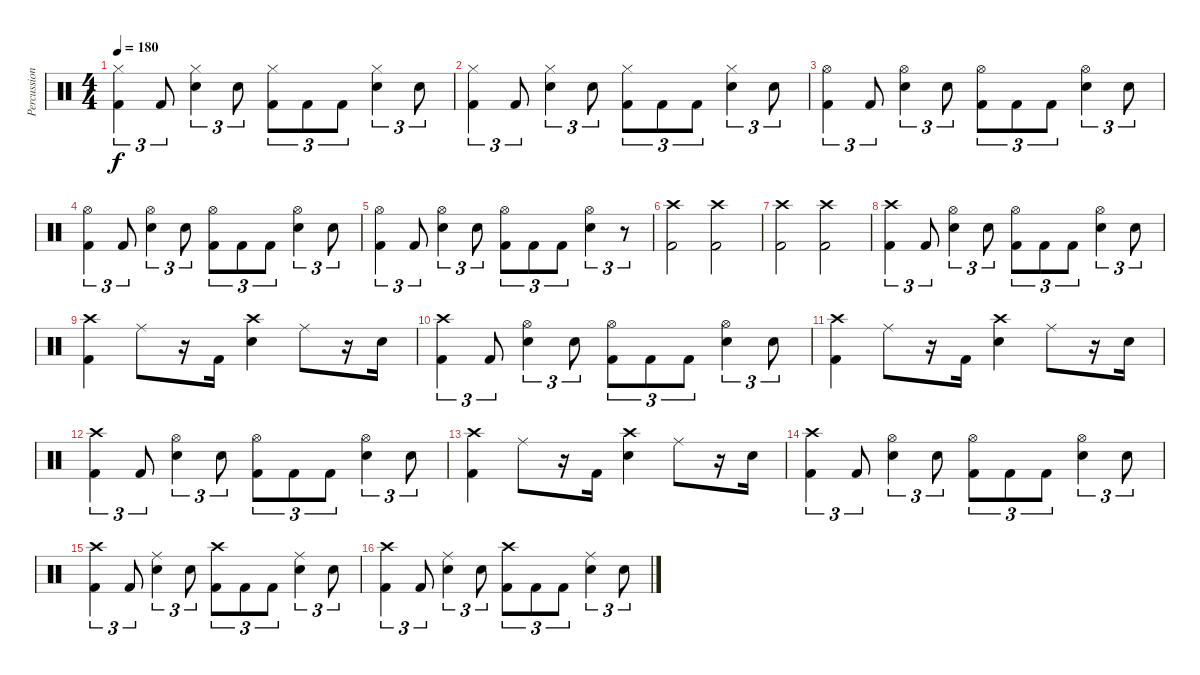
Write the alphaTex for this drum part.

\track ("Percussion" "Percussion") {instrument percussion}
\staff {score}
\articulation defaults
\ts (4 4)
\tempo 180
\clef neutral
\ks c
("Hi-Hat (closed)" "Kick (hit) 2").4{tu (3 2) dy f} "Kick (hit) 2".8{tu (3 2)} ("Hi-Hat (closed)" "Electric Snare (hit)").4{tu (3 2)} "Electric Snare (hit)".8{tu (3 2)} ("Hi-Hat (closed)" "Kick (hit) 2").8{tu (3 2)} "Kick (hit) 2".8{tu (3 2)} "Kick (hit) 2".8{tu (3 2)} ("Hi-Hat (closed)" "Electric Snare (hit)").4{tu (3 2)} "Electric Snare (hit)".8{tu (3 2)} |
("Hi-Hat (closed)" "Kick (hit) 2").4{tu (3 2)} "Kick (hit) 2".8{tu (3 2)} ("Hi-Hat (closed)" "Electric Snare (hit)").4{tu (3 2)} "Electric Snare (hit)".8{tu (3 2)} ("Hi-Hat (closed)" "Kick (hit) 2").8{tu (3 2)} "Kick (hit) 2".8{tu (3 2)} "Kick (hit) 2".8{tu (3 2)} ("Hi-Hat (closed)" "Electric Snare (hit)").4{tu (3 2)} "Electric Snare (hit)".8{tu (3 2)} |
("Hi-Hat (open)" "Kick (hit) 2").4{tu (3 2)} "Kick (hit) 2".8{tu (3 2)} ("Hi-Hat (open)" "Electric Snare (hit)").4{tu (3 2)} "Electric Snare (hit)".8{tu (3 2)} ("Hi-Hat (open)" "Kick (hit) 2").8{tu (3 2)} "Kick (hit) 2".8{tu (3 2)} "Kick (hit) 2".8{tu (3 2)} ("Hi-Hat (open)" "Electric Snare (hit)").4{tu (3 2)} "Electric Snare (hit)".8{tu (3 2)} |
("Hi-Hat (open)" "Kick (hit) 2").4{tu (3 2)} "Kick (hit) 2".8{tu (3 2)} ("Hi-Hat (open)" "Electric Snare (hit)").4{tu (3 2)} "Electric Snare (hit)".8{tu (3 2)} ("Hi-Hat (open)" "Kick (hit) 2").8{tu (3 2)} "Kick (hit) 2".8{tu (3 2)} "Kick (hit) 2".8{tu (3 2)} ("Hi-Hat (open)" "Electric Snare (hit)").4{tu (3 2)} "Electric Snare (hit)".8{tu (3 2)} |
("Hi-Hat (open)" "Kick (hit) 2").4{tu (3 2)} "Kick (hit) 2".8{tu (3 2)} ("Hi-Hat (open)" "Electric Snare (hit)").4{tu (3 2)} "Electric Snare (hit)".8{tu (3 2)} ("Hi-Hat (open)" "Kick (hit) 2").8{tu (3 2)} "Kick (hit) 2".8{tu (3 2)} "Kick (hit) 2".8{tu (3 2)} ("Hi-Hat (open)" "Electric Snare (hit)").4{tu (3 2)} r.8{tu (3 2)} |
("Crash high (hit)" "Kick (hit) 2").2 ("Crash high (hit)" "Kick (hit) 2").2 |
("Crash high (hit)" "Kick (hit) 2").2 ("Crash high (hit)" "Kick (hit) 2").2 |
("Crash high (hit)" "Kick (hit) 2").4{tu (3 2)} "Kick (hit) 2".8{tu (3 2)} ("Hi-Hat (open)" "Electric Snare (hit)").4{tu (3 2)} "Electric Snare (hit)".8{tu (3 2)} ("Hi-Hat (open)" "Kick (hit) 2").8{tu (3 2)} "Kick (hit) 2".8{tu (3 2)} "Kick (hit) 2".8{tu (3 2)} ("Hi-Hat (open)" "Electric Snare (hit)").4{tu (3 2)} "Electric Snare (hit)".8{tu (3 2)} |
("Crash high (hit)" "Kick (hit) 2").4 "Ride (middle)".8 r.16 "Kick (hit) 2".16 ("Crash high (hit)" "Electric Snare (hit)").4 "Ride (middle)".8 r.16 "Electric Snare (hit)".16 |
("Crash high (hit)" "Kick (hit) 2").4{tu (3 2)} "Kick (hit) 2".8{tu (3 2)} ("Hi-Hat (open)" "Electric Snare (hit)").4{tu (3 2)} "Electric Snare (hit)".8{tu (3 2)} ("Hi-Hat (open)" "Kick (hit) 2").8{tu (3 2)} "Kick (hit) 2".8{tu (3 2)} "Kick (hit) 2".8{tu (3 2)} ("Hi-Hat (open)" "Electric Snare (hit)").4{tu (3 2)} "Electric Snare (hit)".8{tu (3 2)} |
("Crash high (hit)" "Kick (hit) 2").4 "Ride (middle)".8 r.16 "Kick (hit) 2".16 ("Crash high (hit)" "Electric Snare (hit)").4 "Ride (middle)".8 r.16 "Electric Snare (hit)".16 |
("Crash high (hit)" "Kick (hit) 2").4{tu (3 2)} "Kick (hit) 2".8{tu (3 2)} ("Hi-Hat (open)" "Electric Snare (hit)").4{tu (3 2)} "Electric Snare (hit)".8{tu (3 2)} ("Hi-Hat (open)" "Kick (hit) 2").8{tu (3 2)} "Kick (hit) 2".8{tu (3 2)} "Kick (hit) 2".8{tu (3 2)} ("Hi-Hat (open)" "Electric Snare (hit)").4{tu (3 2)} "Electric Snare (hit)".8{tu (3 2)} |
("Crash high (hit)" "Kick (hit) 2").4 "Ride (middle)".8 r.16 "Kick (hit) 2".16 ("Crash high (hit)" "Electric Snare (hit)").4 "Ride (middle)".8 r.16 "Electric Snare (hit)".16 |
("Crash high (hit)" "Kick (hit) 2").4{tu (3 2)} "Kick (hit) 2".8{tu (3 2)} ("Hi-Hat (open)" "Electric Snare (hit)").4{tu (3 2)} "Electric Snare (hit)".8{tu (3 2)} ("Hi-Hat (open)" "Kick (hit) 2").8{tu (3 2)} "Kick (hit) 2".8{tu (3 2)} "Kick (hit) 2".8{tu (3 2)} ("Hi-Hat (open)" "Electric Snare (hit)").4{tu (3 2)} "Electric Snare (hit)".8{tu (3 2)} |
("Crash high (hit)" "Kick (hit) 2").4{tu (3 2)} "Kick (hit) 2".8{tu (3 2)} ("Ride (middle)" "Electric Snare (hit)").4{tu (3 2)} "Electric Snare (hit)".8{tu (3 2)} ("Crash high (hit)" "Kick (hit) 2").8{tu (3 2)} "Kick (hit) 2".8{tu (3 2)} "Kick (hit) 2".8{tu (3 2)} ("Ride (middle)" "Electric Snare (hit)").4{tu (3 2)} "Electric Snare (hit)".8{tu (3 2)} |
("Crash high (hit)" "Kick (hit) 2").4{tu (3 2)} "Kick (hit) 2".8{tu (3 2)} ("Ride (middle)" "Electric Snare (hit)").4{tu (3 2)} "Electric Snare (hit)".8{tu (3 2)} ("Crash high (hit)" "Kick (hit) 2").8{tu (3 2)} "Kick (hit) 2".8{tu (3 2)} "Kick (hit) 2".8{tu (3 2)} ("Ride (middle)" "Electric Snare (hit)").4{tu (3 2)} "Electric Snare (hit)".8{tu (3 2)}
